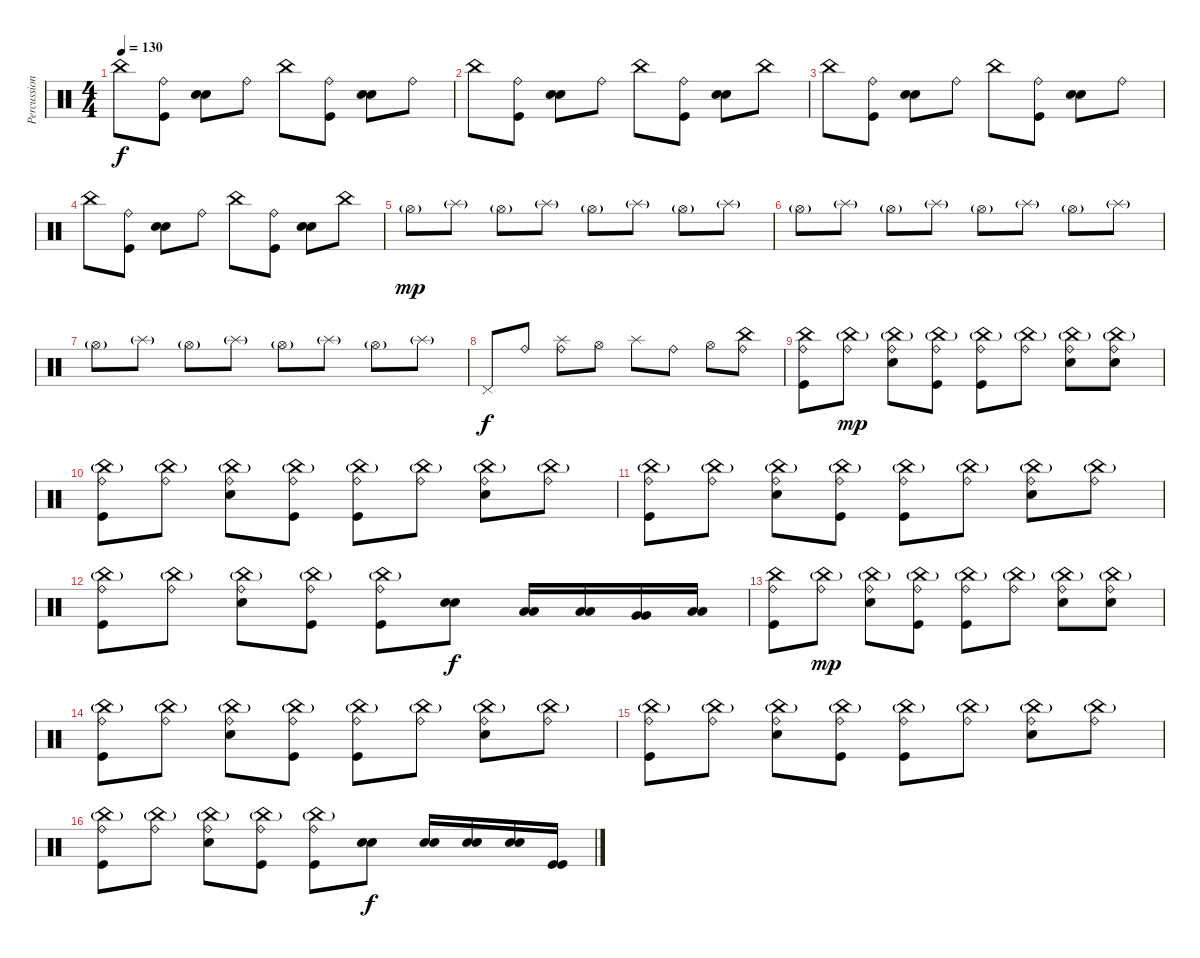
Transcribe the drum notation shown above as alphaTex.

\track ("Percussion" "Percussion") {instrument percussion}
\staff {score}
\articulation defaults
\ts (4 4)
\tempo 130
\clef neutral
\ks c "China (hit)".8{dy f}
("Ride (bell)" "Kick (hit)").8 ("Electric Snare (hit)" "Electric Snare (hit)").8 "Ride (bell)".8 "China (hit)".8 ("Ride (bell)" "Kick (hit)").8 ("Electric Snare (hit)" "Electric Snare (hit)").8 "Ride (bell)".8 |
"China (hit)".8 ("Ride (bell)" "Kick (hit)").8 ("Electric Snare (hit)" "Electric Snare (hit)").8 "Ride (bell)".8 "China (hit)".8 ("Ride (bell)" "Kick (hit)").8 ("Electric Snare (hit)" "Electric Snare (hit)").8 "China (hit)".8 |
"China (hit)".8 ("Ride (bell)" "Kick (hit)").8 ("Electric Snare (hit)" "Electric Snare (hit)").8 "Ride (bell)".8 "China (hit)".8 ("Ride (bell)" "Kick (hit)").8 ("Electric Snare (hit)" "Electric Snare (hit)").8 "Ride (bell)".8 |
"China (hit)".8 ("Ride (bell)" "Kick (hit)").8 ("Electric Snare (hit)" "Electric Snare (hit)").8 "Ride (bell)".8 "China (hit)".8 ("Ride (bell)" "Kick (hit)").8 ("Electric Snare (hit)" "Electric Snare (hit)").8 "China (hit)".8 |
"Hi-Hat (open)"{g}.8{dy mp} "Splash (hit)"{g}.8 "Hi-Hat (open)"{g}.8 "Splash (hit)"{g}.8 "Hi-Hat (open)"{g}.8 "Splash (hit)"{g}.8 "Hi-Hat (open)"{g}.8 "Splash (hit)"{g}.8 |
"Hi-Hat (open)"{g}.8 "Splash (hit)"{g}.8 "Hi-Hat (open)"{g}.8 "Splash (hit)"{g}.8 "Hi-Hat (open)"{g}.8 "Splash (hit)"{g}.8 "Hi-Hat (open)"{g}.8 "Splash (hit)"{g}.8 |
"Hi-Hat (open)"{g}.8 "Splash (hit)"{g}.8 "Hi-Hat (open)"{g}.8 "Splash (hit)"{g}.8 "Hi-Hat (open)"{g}.8 "Splash (hit)"{g}.8 "Hi-Hat (open)"{g}.8 "Splash (hit)"{g}.8 |
"Pedal Hi-Hat (hit)".8{dy f} "Ride (bell)".8 ("Ride (bell)" "Splash (hit)").8 "Hi-Hat (open)".8 "Splash (hit)".8 "Ride (bell)".8 "Hi-Hat (open)".8 ("Ride (bell)" "China (hit)").8 |
("China (hit)" "Ride (bell)" "Kick (hit)").8 ("China (hit)"{g} "Ride (bell)").8{dy mp} ("China (hit)"{g} "Ride (bell)" "Electric Snare (hit)").8 ("China (hit)"{g} "Ride (bell)" "Kick (hit)").8 ("China (hit)"{g} "Ride (bell)" "Kick (hit)").8 ("China (hit)"{g} "Ride (bell)").8 ("China (hit)"{g} "Ride (bell)" "Electric Snare (hit)").8 ("China (hit)"{g} "Ride (bell)" "Electric Snare (hit)").8 |
("China (hit)"{g} "Ride (bell)" "Kick (hit)").8 ("China (hit)"{g} "Ride (bell)").8 ("China (hit)"{g} "Ride (bell)" "Electric Snare (hit)").8 ("China (hit)"{g} "Ride (bell)" "Kick (hit)").8 ("China (hit)"{g} "Ride (bell)" "Kick (hit)").8 ("China (hit)"{g} "Ride (bell)").8 ("China (hit)"{g} "Ride (bell)" "Electric Snare (hit)").8 ("China (hit)"{g} "Ride (bell)").8 |
("China (hit)"{g} "Ride (bell)" "Kick (hit)").8 ("China (hit)"{g} "Ride (bell)").8 ("China (hit)"{g} "Ride (bell)" "Electric Snare (hit)").8 ("China (hit)"{g} "Ride (bell)" "Kick (hit)").8 ("China (hit)"{g} "Ride (bell)" "Kick (hit)").8 ("China (hit)"{g} "Ride (bell)").8 ("China (hit)"{g} "Ride (bell)" "Electric Snare (hit)").8 ("China (hit)"{g} "Ride (bell)").8 |
("China (hit)"{g} "Ride (bell)" "Kick (hit)").8 ("China (hit)"{g} "Ride (bell)").8 ("China (hit)"{g} "Ride (bell)" "Electric Snare (hit)").8 ("China (hit)"{g} "Ride (bell)" "Kick (hit)").8 ("China (hit)"{g} "Ride (bell)" "Kick (hit)").8 ("Electric Snare (hit)" "Electric Snare (hit)").8{dy f} ("Low Tom (hit)" "Low Tom (hit)").16 ("Low Tom (hit)" "Low Tom (hit)").16 ("Very Low Tom (hit)" "Very Low Tom (hit)").16 ("Low Floor Tom (hit)" "Low Floor Tom (hit)").16 |
("China (hit)" "Ride (bell)" "Kick (hit)").8 ("China (hit)"{g} "Ride (bell)").8{dy mp} ("China (hit)"{g} "Ride (bell)" "Electric Snare (hit)").8 ("China (hit)"{g} "Ride (bell)" "Kick (hit)").8 ("China (hit)"{g} "Ride (bell)" "Kick (hit)").8 ("China (hit)"{g} "Ride (bell)").8 ("China (hit)"{g} "Ride (bell)" "Electric Snare (hit)").8 ("China (hit)"{g} "Ride (bell)" "Electric Snare (hit)").8 |
("China (hit)"{g} "Ride (bell)" "Kick (hit)").8 ("China (hit)"{g} "Ride (bell)").8 ("China (hit)"{g} "Ride (bell)" "Electric Snare (hit)").8 ("China (hit)"{g} "Ride (bell)" "Kick (hit)").8 ("China (hit)"{g} "Ride (bell)" "Kick (hit)").8 ("China (hit)"{g} "Ride (bell)").8 ("China (hit)"{g} "Ride (bell)" "Electric Snare (hit)").8 ("China (hit)"{g} "Ride (bell)").8 |
("China (hit)"{g} "Ride (bell)" "Kick (hit)").8 ("China (hit)"{g} "Ride (bell)").8 ("China (hit)"{g} "Ride (bell)" "Electric Snare (hit)").8 ("China (hit)"{g} "Ride (bell)" "Kick (hit)").8 ("China (hit)"{g} "Ride (bell)" "Kick (hit)").8 ("China (hit)"{g} "Ride (bell)").8 ("China (hit)"{g} "Ride (bell)" "Electric Snare (hit)").8 ("China (hit)"{g} "Ride (bell)").8 |
("China (hit)"{g} "Ride (bell)" "Kick (hit)").8 ("China (hit)"{g} "Ride (bell)").8 ("China (hit)"{g} "Ride (bell)" "Electric Snare (hit)").8 ("China (hit)"{g} "Ride (bell)" "Kick (hit)").8 ("China (hit)"{g} "Ride (bell)" "Kick (hit)").8 ("Electric Snare (hit)" "Electric Snare (hit)").8{dy f} ("Electric Snare (hit)" "Electric Snare (hit)").16 ("Electric Snare (hit)" "Electric Snare (hit)").16 ("Electric Snare (hit)" "Electric Snare (hit)").16 ("Kick (hit)" "Kick (hit)").16
